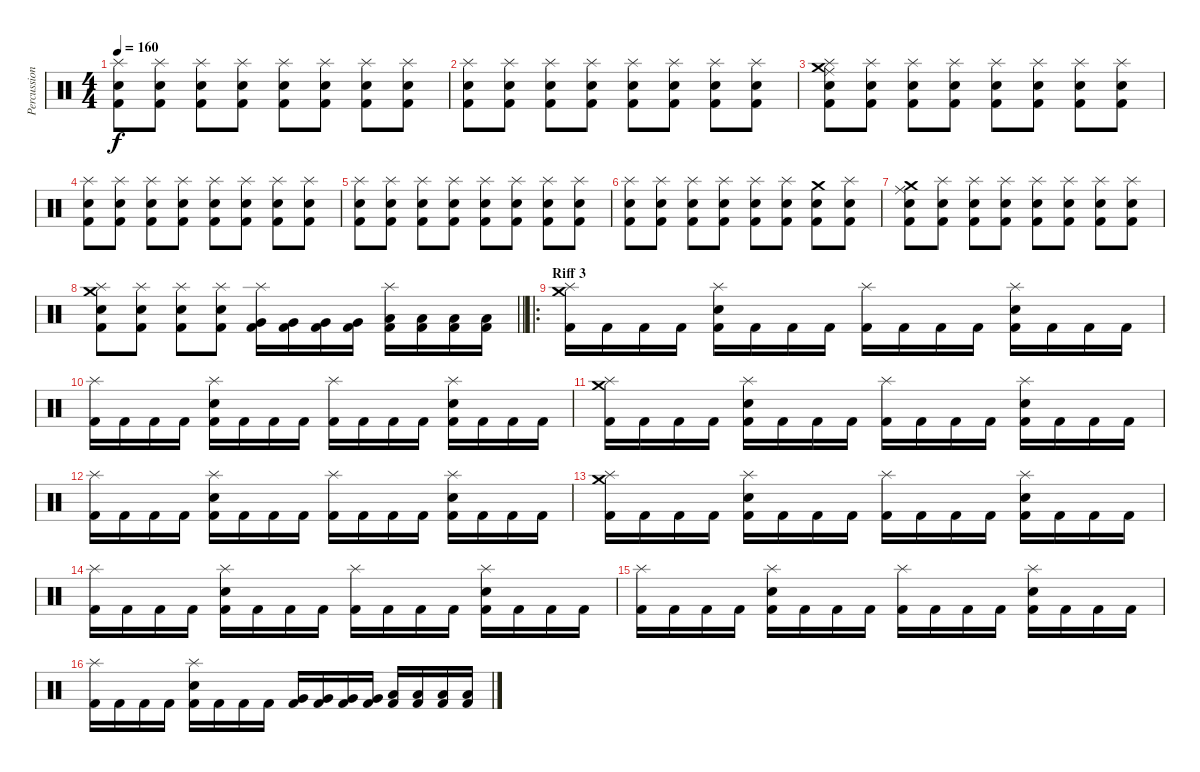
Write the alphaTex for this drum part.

\track ("Percussions" "Percussion") {instrument percussion}
\staff {score}
\articulation defaults
\ts (4 4)
\tempo 160
\clef neutral
\ks c
("Splash (hit)" "Electric Snare (hit)" "Kick (hit) 2").8{dy f} ("Splash (hit)" "Electric Snare (hit)" "Kick (hit) 2").8 ("Splash (hit)" "Electric Snare (hit)" "Kick (hit) 2").8 ("Splash (hit)" "Electric Snare (hit)" "Kick (hit) 2").8 ("Splash (hit)" "Electric Snare (hit)" "Kick (hit) 2").8 ("Splash (hit)" "Electric Snare (hit)" "Kick (hit) 2").8 ("Splash (hit)" "Electric Snare (hit)" "Kick (hit) 2").8 ("Splash (hit)" "Electric Snare (hit)" "Kick (hit) 2").8 |
("Splash (hit)" "Electric Snare (hit)" "Kick (hit) 2").8 ("Splash (hit)" "Electric Snare (hit)" "Kick (hit) 2").8 ("Splash (hit)" "Electric Snare (hit)" "Kick (hit) 2").8 ("Splash (hit)" "Electric Snare (hit)" "Kick (hit) 2").8 ("Splash (hit)" "Electric Snare (hit)" "Kick (hit) 2").8 ("Splash (hit)" "Electric Snare (hit)" "Kick (hit) 2").8 ("Splash (hit)" "Electric Snare (hit)" "Kick (hit) 2").8 ("Splash (hit)" "Electric Snare (hit)" "Kick (hit) 2").8 |
("Splash (hit)" "Crash medium (hit)" "Electric Snare (hit)" "Ride (middle)" "Kick (hit) 2").8 ("Splash (hit)" "Electric Snare (hit)" "Kick (hit) 2").8 ("Splash (hit)" "Electric Snare (hit)" "Kick (hit) 2").8 ("Splash (hit)" "Electric Snare (hit)" "Kick (hit) 2").8 ("Splash (hit)" "Electric Snare (hit)" "Kick (hit) 2").8 ("Splash (hit)" "Electric Snare (hit)" "Kick (hit) 2").8 ("Splash (hit)" "Electric Snare (hit)" "Kick (hit) 2").8 ("Splash (hit)" "Electric Snare (hit)" "Kick (hit) 2").8 |
("Splash (hit)" "Electric Snare (hit)" "Kick (hit) 2").8 ("Splash (hit)" "Electric Snare (hit)" "Kick (hit) 2").8 ("Splash (hit)" "Electric Snare (hit)" "Kick (hit) 2").8 ("Splash (hit)" "Electric Snare (hit)" "Kick (hit) 2").8 ("Splash (hit)" "Electric Snare (hit)" "Kick (hit) 2").8 ("Splash (hit)" "Electric Snare (hit)" "Kick (hit) 2").8 ("Splash (hit)" "Electric Snare (hit)" "Kick (hit) 2").8 ("Splash (hit)" "Electric Snare (hit)" "Kick (hit) 2").8 |
("Splash (hit)" "Electric Snare (hit)" "Kick (hit) 2").8 ("Splash (hit)" "Electric Snare (hit)" "Kick (hit) 2").8 ("Splash (hit)" "Electric Snare (hit)" "Kick (hit) 2").8 ("Splash (hit)" "Electric Snare (hit)" "Kick (hit) 2").8 ("Splash (hit)" "Electric Snare (hit)" "Kick (hit) 2").8 ("Splash (hit)" "Electric Snare (hit)" "Kick (hit) 2").8 ("Splash (hit)" "Electric Snare (hit)" "Kick (hit) 2").8 ("Splash (hit)" "Electric Snare (hit)" "Kick (hit) 2").8 |
("Splash (hit)" "Electric Snare (hit)" "Kick (hit) 2").8 ("Splash (hit)" "Electric Snare (hit)" "Kick (hit) 2").8 ("Splash (hit)" "Electric Snare (hit)" "Kick (hit) 2").8 ("Splash (hit)" "Electric Snare (hit)" "Kick (hit) 2").8 ("Splash (hit)" "Electric Snare (hit)" "Kick (hit) 2").8 ("Splash (hit)" "Electric Snare (hit)" "Kick (hit) 2").8 ("Crash medium (hit)" "Electric Snare (hit)" "Kick (hit) 2").8 ("Splash (hit)" "Electric Snare (hit)" "Kick (hit) 2").8 |
("Crash medium (hit)" "Ride (middle)" "Electric Snare (hit)" "Kick (hit) 2").8 ("Splash (hit)" "Electric Snare (hit)" "Kick (hit) 2").8 ("Splash (hit)" "Electric Snare (hit)" "Kick (hit) 2").8 ("Splash (hit)" "Electric Snare (hit)" "Kick (hit) 2").8 ("Splash (hit)" "Electric Snare (hit)" "Kick (hit) 2").8 ("Splash (hit)" "Electric Snare (hit)" "Kick (hit) 2").8 ("Splash (hit)" "Electric Snare (hit)" "Kick (hit) 2").8 ("Splash (hit)" "Electric Snare (hit)" "Kick (hit) 2").8 |
\barLineRight lightlight
("Splash (hit)" "Crash medium (hit)" "Electric Snare (hit)" "Kick (hit) 2").8 ("Splash (hit)" "Electric Snare (hit)" "Kick (hit) 2").8 ("Splash (hit)" "Electric Snare (hit)" "Kick (hit) 2").8 ("Splash (hit)" "Electric Snare (hit)" "Kick (hit) 2").8 ("Splash (hit)" "Very Low Tom (hit)" "Kick (hit) 2").16 ("Very Low Tom (hit)" "Kick (hit) 2").16 ("Very Low Tom (hit)" "Kick (hit) 2").16 ("Very Low Tom (hit)" "Kick (hit) 2").16 ("Splash (hit)" "Low Floor Tom (hit)" "Kick (hit) 2").16 ("Low Floor Tom (hit)" "Kick (hit) 2").16 ("Low Floor Tom (hit)" "Kick (hit) 2").16 ("Low Floor Tom (hit)" "Kick (hit) 2").16 |
\ro
\section ("" "Riff 3")
("Crash medium (hit)" "Splash (hit)" "Kick (hit) 2").16 "Kick (hit) 2".16 "Kick (hit) 2".16 "Kick (hit) 2".16 ("Splash (hit)" "Snare (hit) 2" "Kick (hit) 2").16 "Kick (hit) 2".16 "Kick (hit) 2".16 "Kick (hit) 2".16 ("Splash (hit)" "Kick (hit) 2").16 "Kick (hit) 2".16 "Kick (hit) 2".16 "Kick (hit) 2".16 ("Splash (hit)" "Snare (hit) 2" "Kick (hit) 2").16 "Kick (hit) 2".16 "Kick (hit) 2".16 "Kick (hit) 2".16 |
("Splash (hit)" "Kick (hit) 2").16 "Kick (hit) 2".16 "Kick (hit) 2".16 "Kick (hit) 2".16 ("Splash (hit)" "Snare (hit) 2" "Kick (hit) 2").16 "Kick (hit) 2".16 "Kick (hit) 2".16 "Kick (hit) 2".16 ("Splash (hit)" "Kick (hit) 2").16 "Kick (hit) 2".16 "Kick (hit) 2".16 "Kick (hit) 2".16 ("Splash (hit)" "Snare (hit) 2" "Kick (hit) 2").16 "Kick (hit) 2".16 "Kick (hit) 2".16 "Kick (hit) 2".16 |
("Crash medium (hit)" "Splash (hit)" "Kick (hit) 2").16 "Kick (hit) 2".16 "Kick (hit) 2".16 "Kick (hit) 2".16 ("Splash (hit)" "Snare (hit) 2" "Kick (hit) 2").16 "Kick (hit) 2".16 "Kick (hit) 2".16 "Kick (hit) 2".16 ("Splash (hit)" "Kick (hit) 2").16 "Kick (hit) 2".16 "Kick (hit) 2".16 "Kick (hit) 2".16 ("Splash (hit)" "Snare (hit) 2" "Kick (hit) 2").16 "Kick (hit) 2".16 "Kick (hit) 2".16 "Kick (hit) 2".16 |
("Splash (hit)" "Kick (hit) 2").16 "Kick (hit) 2".16 "Kick (hit) 2".16 "Kick (hit) 2".16 ("Splash (hit)" "Snare (hit) 2" "Kick (hit) 2").16 "Kick (hit) 2".16 "Kick (hit) 2".16 "Kick (hit) 2".16 ("Splash (hit)" "Kick (hit) 2").16 "Kick (hit) 2".16 "Kick (hit) 2".16 "Kick (hit) 2".16 ("Splash (hit)" "Snare (hit) 2" "Kick (hit) 2").16 "Kick (hit) 2".16 "Kick (hit) 2".16 "Kick (hit) 2".16 |
("Crash medium (hit)" "Splash (hit)" "Kick (hit) 2").16 "Kick (hit) 2".16 "Kick (hit) 2".16 "Kick (hit) 2".16 ("Splash (hit)" "Snare (hit) 2" "Kick (hit) 2").16 "Kick (hit) 2".16 "Kick (hit) 2".16 "Kick (hit) 2".16 ("Splash (hit)" "Kick (hit) 2").16 "Kick (hit) 2".16 "Kick (hit) 2".16 "Kick (hit) 2".16 ("Splash (hit)" "Snare (hit) 2" "Kick (hit) 2").16 "Kick (hit) 2".16 "Kick (hit) 2".16 "Kick (hit) 2".16 |
("Splash (hit)" "Kick (hit) 2").16 "Kick (hit) 2".16 "Kick (hit) 2".16 "Kick (hit) 2".16 ("Splash (hit)" "Snare (hit) 2" "Kick (hit) 2").16 "Kick (hit) 2".16 "Kick (hit) 2".16 "Kick (hit) 2".16 ("Splash (hit)" "Kick (hit) 2").16 "Kick (hit) 2".16 "Kick (hit) 2".16 "Kick (hit) 2".16 ("Splash (hit)" "Snare (hit) 2" "Kick (hit) 2").16 "Kick (hit) 2".16 "Kick (hit) 2".16 "Kick (hit) 2".16 |
("Splash (hit)" "Kick (hit) 2").16 "Kick (hit) 2".16 "Kick (hit) 2".16 "Kick (hit) 2".16 ("Splash (hit)" "Snare (hit) 2" "Kick (hit) 2").16 "Kick (hit) 2".16 "Kick (hit) 2".16 "Kick (hit) 2".16 ("Splash (hit)" "Kick (hit) 2").16 "Kick (hit) 2".16 "Kick (hit) 2".16 "Kick (hit) 2".16 ("Splash (hit)" "Snare (hit) 2" "Kick (hit) 2").16 "Kick (hit) 2".16 "Kick (hit) 2".16 "Kick (hit) 2".16 |
("Splash (hit)" "Kick (hit) 2").16 "Kick (hit) 2".16 "Kick (hit) 2".16 "Kick (hit) 2".16 ("Splash (hit)" "Snare (hit) 2" "Kick (hit) 2").16 "Kick (hit) 2".16 "Kick (hit) 2".16 "Kick (hit) 2".16 ("Very Low Tom (hit)" "Kick (hit) 2").16 ("Very Low Tom (hit)" "Kick (hit) 2").16 ("Very Low Tom (hit)" "Kick (hit) 2").16 ("Very Low Tom (hit)" "Kick (hit) 2").16 ("Low Floor Tom (hit)" "Kick (hit) 2").16 ("Low Floor Tom (hit)" "Kick (hit) 2").16 ("Low Floor Tom (hit)" "Kick (hit) 2").16 ("Low Floor Tom (hit)" "Kick (hit) 2").16
